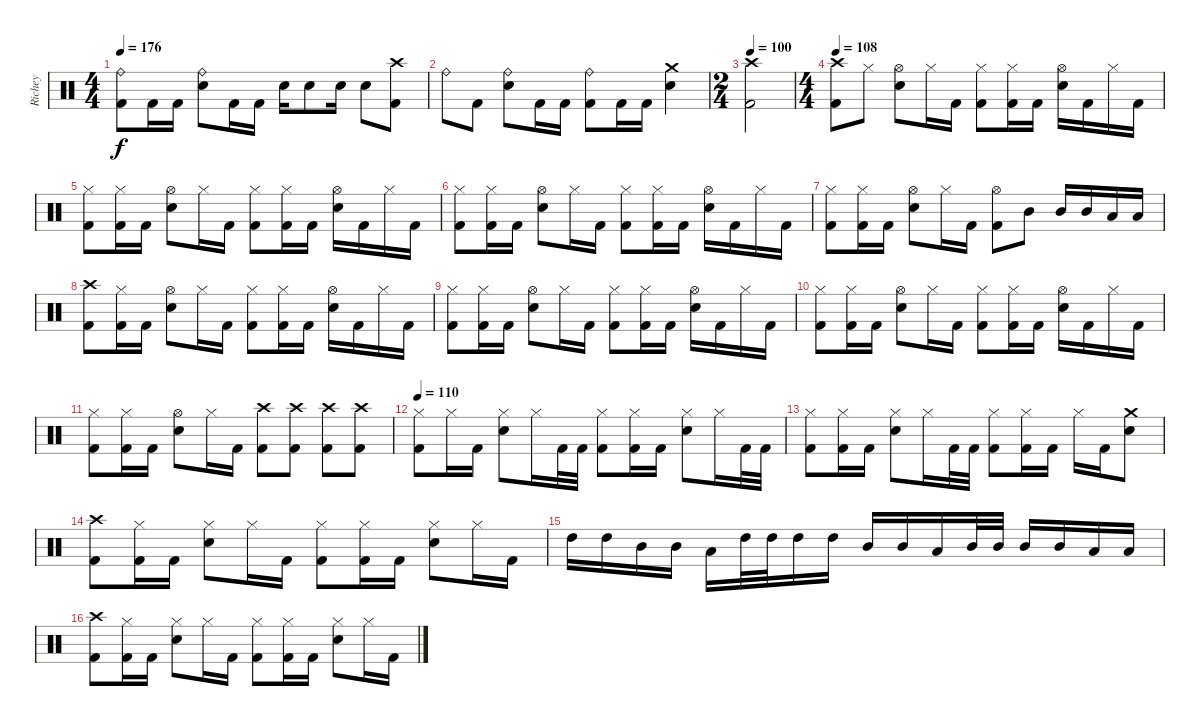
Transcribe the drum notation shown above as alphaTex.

\track ("Richey" "Richey") {instrument percussion}
\staff {score}
\articulation defaults
\ts (4 4)
\tempo 176
\clef neutral
\ks c
("Ride (bell)" "Kick (hit) 2").8{dy f} "Kick (hit) 2".16 "Kick (hit) 2".16 ("Ride (bell)" "Snare (hit) 2").8 "Kick (hit) 2".16 "Kick (hit) 2".16 "Snare (hit) 2".16 "Snare (hit) 2".8 "Snare (hit) 2".16 "Snare (hit) 2".8 ("Crash high (hit)" "Kick (hit) 2").8 |
"Ride (bell)".8 "Kick (hit) 2".8 ("Ride (bell)" "Snare (hit) 2").8 "Kick (hit) 2".16 "Kick (hit) 2".16 ("Ride (bell)" "Kick (hit) 2").8 "Kick (hit) 2".16 "Kick (hit) 2".16 ("Crash medium (hit)" "Snare (hit) 2").4 |
\ts (2 4)
\tempo 100
("Crash high (hit)" "Kick (hit) 2").2 |
\ts (4 4)
\tempo 108
("Crash high (hit)" "Kick (hit) 2").8 "Hi-Hat (closed)".8 ("Hi-Hat (open)" "Snare (hit) 2").8 "Hi-Hat (closed)".16 "Kick (hit) 2".16 ("Hi-Hat (closed)" "Kick (hit) 2").8 ("Hi-Hat (closed)" "Kick (hit) 2").16 "Kick (hit) 2".16 ("Hi-Hat (open)" "Snare (hit) 2").16 "Kick (hit) 2".16 "Hi-Hat (closed)".16 "Kick (hit) 2".16 |
("Hi-Hat (closed)" "Kick (hit) 2").8 ("Hi-Hat (closed)" "Kick (hit) 2").16 "Kick (hit) 2".16 ("Hi-Hat (open)" "Snare (hit) 2").8 "Hi-Hat (closed)".16 "Kick (hit) 2".16 ("Hi-Hat (closed)" "Kick (hit) 2").8 ("Hi-Hat (closed)" "Kick (hit) 2").16 "Kick (hit) 2".16 ("Hi-Hat (open)" "Snare (hit) 2").16 "Kick (hit) 2".16 "Hi-Hat (closed)".16 "Kick (hit) 2".16 |
("Hi-Hat (closed)" "Kick (hit) 2").8 ("Hi-Hat (closed)" "Kick (hit) 2").16 "Kick (hit) 2".16 ("Hi-Hat (open)" "Snare (hit) 2").8 "Hi-Hat (closed)".16 "Kick (hit) 2".16 ("Hi-Hat (closed)" "Kick (hit) 2").8 ("Hi-Hat (closed)" "Kick (hit) 2").16 "Kick (hit) 2".16 ("Hi-Hat (open)" "Snare (hit) 2").16 "Kick (hit) 2".16 "Hi-Hat (closed)".16 "Kick (hit) 2".16 |
("Hi-Hat (closed)" "Kick (hit) 2").8 ("Hi-Hat (closed)" "Kick (hit) 2").16 "Kick (hit) 2".16 ("Hi-Hat (open)" "Snare (hit) 2").8 "Hi-Hat (closed)".16 "Kick (hit) 2".16 ("Hi-Hat (open)" "Kick (hit) 2").8 "Mid Tom (hit)".8 "Mid Tom (hit)".16 "Mid Tom (hit)".16 "Low Tom (hit)".16 "Low Tom (hit)".16 |
("Crash high (hit)" "Kick (hit) 2").8 ("Hi-Hat (closed)" "Kick (hit) 2").16 "Kick (hit) 2".16 ("Hi-Hat (open)" "Snare (hit) 2").8 "Hi-Hat (closed)".16 "Kick (hit) 2".16 ("Hi-Hat (closed)" "Kick (hit) 2").8 ("Hi-Hat (closed)" "Kick (hit) 2").16 "Kick (hit) 2".16 ("Hi-Hat (open)" "Snare (hit) 2").16 "Kick (hit) 2".16 "Hi-Hat (closed)".16 "Kick (hit) 2".16 |
("Hi-Hat (closed)" "Kick (hit) 2").8 ("Hi-Hat (closed)" "Kick (hit) 2").16 "Kick (hit) 2".16 ("Hi-Hat (open)" "Snare (hit) 2").8 "Hi-Hat (closed)".16 "Kick (hit) 2".16 ("Hi-Hat (closed)" "Kick (hit) 2").8 ("Hi-Hat (closed)" "Kick (hit) 2").16 "Kick (hit) 2".16 ("Hi-Hat (open)" "Snare (hit) 2").16 "Kick (hit) 2".16 "Hi-Hat (closed)".16 "Kick (hit) 2".16 |
("Hi-Hat (closed)" "Kick (hit) 2").8 ("Hi-Hat (closed)" "Kick (hit) 2").16 "Kick (hit) 2".16 ("Hi-Hat (open)" "Snare (hit) 2").8 "Hi-Hat (closed)".16 "Kick (hit) 2".16 ("Hi-Hat (closed)" "Kick (hit) 2").8 ("Hi-Hat (closed)" "Kick (hit) 2").16 "Kick (hit) 2".16 ("Hi-Hat (open)" "Snare (hit) 2").16 "Kick (hit) 2".16 "Hi-Hat (closed)".16 "Kick (hit) 2".16 |
("Hi-Hat (closed)" "Kick (hit) 2").8 ("Hi-Hat (closed)" "Kick (hit) 2").16 "Kick (hit) 2".16 ("Hi-Hat (open)" "Snare (hit) 2").8 "Hi-Hat (closed)".16 "Kick (hit) 2".16 ("Crash high (hit)" "Kick (hit) 2").8 ("Crash high (hit)" "Kick (hit) 2").8 ("Crash high (hit)" "Kick (hit) 2").8 ("Crash high (hit)" "Kick (hit) 2").8 |
\tempo 110
("Hi-Hat (closed)" "Kick (hit) 2").8 "Hi-Hat (closed)".16 "Kick (hit) 2".16 ("Hi-Hat (closed)" "Snare (hit) 2").8 "Hi-Hat (closed)".16 "Kick (hit) 2".32 "Kick (hit) 2".32 ("Hi-Hat (closed)" "Kick (hit) 2").8 ("Hi-Hat (closed)" "Kick (hit) 2").16 "Kick (hit) 2".16 ("Hi-Hat (closed)" "Snare (hit) 2").8 "Hi-Hat (closed)".16 "Kick (hit) 2".32 "Kick (hit) 2".32 |
("Hi-Hat (closed)" "Kick (hit) 2").8 ("Hi-Hat (closed)" "Kick (hit) 2").16 "Kick (hit) 2".16 ("Hi-Hat (closed)" "Snare (hit) 2").8 "Hi-Hat (closed)".16 "Kick (hit) 2".32 "Kick (hit) 2".32 ("Hi-Hat (closed)" "Kick (hit) 2").8 ("Hi-Hat (closed)" "Kick (hit) 2").16 "Kick (hit) 2".16 "Hi-Hat (closed)".16 "Kick (hit) 2".16 ("Crash medium (hit)" "Snare (hit) 2").8 |
("Crash high (hit)" "Kick (hit) 2").8 ("Hi-Hat (closed)" "Kick (hit) 2").16 "Kick (hit) 2".16 ("Hi-Hat (closed)" "Snare (hit) 2").8 "Hi-Hat (closed)".16 "Kick (hit) 2".16 ("Hi-Hat (closed)" "Kick (hit) 2").8 ("Hi-Hat (closed)" "Kick (hit) 2").16 "Kick (hit) 2".16 ("Hi-Hat (closed)" "Snare (hit) 2").8 "Hi-Hat (closed)".16 "Kick (hit) 2".16 |
"High Tom (hit)".16 "High Tom (hit)".16 "Mid Tom (hit)".16 "Mid Tom (hit)".16 "Low Tom (hit)".16 "High Tom (hit)".32 "High Tom (hit)".32 "High Tom (hit)".16 "High Tom (hit)".16 "Mid Tom (hit)".16 "Mid Tom (hit)".16 "Low Tom (hit)".16 "Mid Tom (hit)".32 "Mid Tom (hit)".32 "Mid Tom (hit)".16 "Mid Tom (hit)".16 "Low Tom (hit)".16 "Low Tom (hit)".16 |
("Crash high (hit)" "Kick (hit) 2").8 ("Hi-Hat (closed)" "Kick (hit) 2").16 "Kick (hit) 2".16 ("Hi-Hat (closed)" "Snare (hit) 2").8 "Hi-Hat (closed)".16 "Kick (hit) 2".16 ("Hi-Hat (closed)" "Kick (hit) 2").8 ("Hi-Hat (closed)" "Kick (hit) 2").16 "Kick (hit) 2".16 ("Hi-Hat (closed)" "Snare (hit) 2").8 "Hi-Hat (closed)".16 "Kick (hit) 2".16
